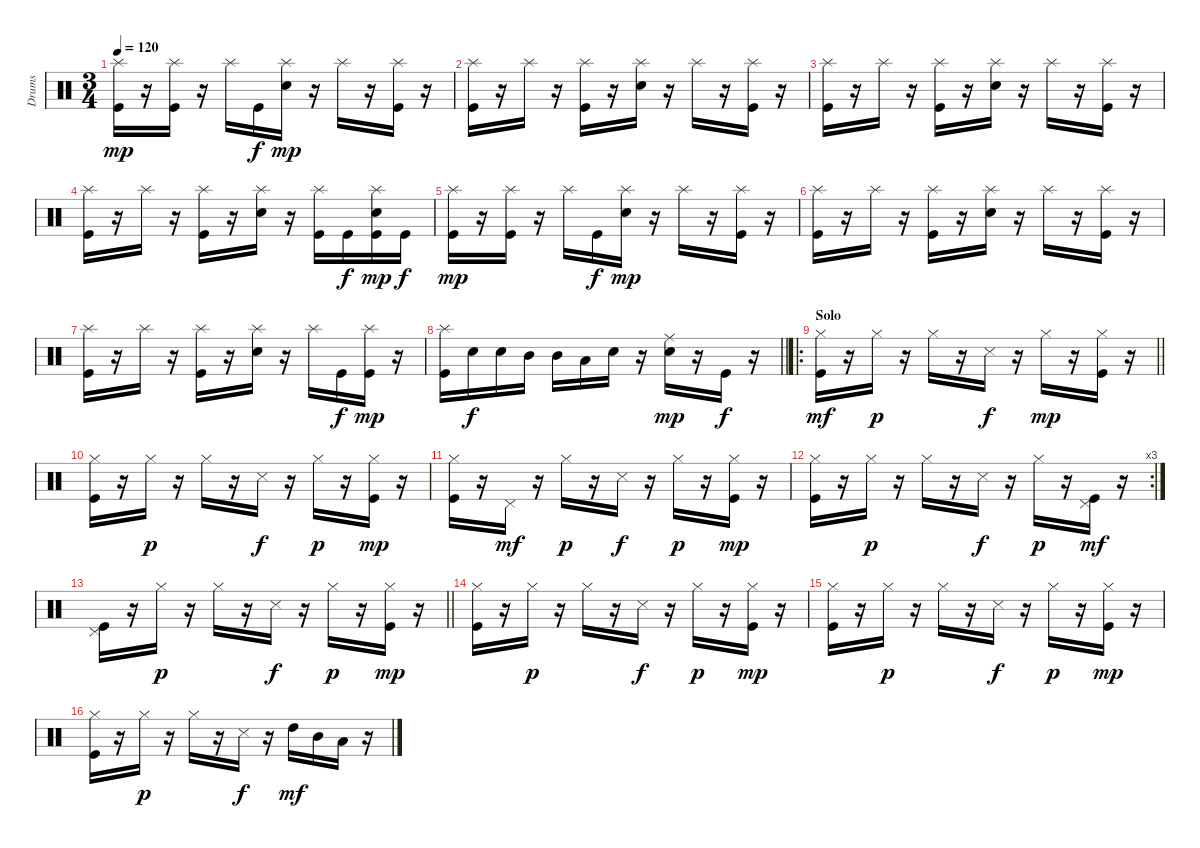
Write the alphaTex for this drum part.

\track ("Drums" "Drums") {instrument percussion}
\staff {score}
\articulation defaults
\ts (3 4)
\tempo 120
\clef neutral
\ks c
("Kick (hit)" "Splash (hit)").16{dy mp} r.16 ("Kick (hit)" "Splash (hit)").16 r.16 "Splash (hit)".16 "Kick (hit)".16{dy f} ("Splash (hit)" "Snare (hit) 2").16{dy mp} r.16 "Splash (hit)".16 r.16 ("Kick (hit)" "Splash (hit)").16 r.16 |
("Kick (hit)" "Splash (hit)").16 r.16 "Splash (hit)".16 r.16 ("Kick (hit)" "Splash (hit)").16 r.16 ("Splash (hit)" "Snare (hit) 2").16 r.16 "Splash (hit)".16 r.16 ("Kick (hit)" "Splash (hit)").16 r.16 |
("Kick (hit)" "Splash (hit)").16 r.16 "Splash (hit)".16 r.16 ("Kick (hit)" "Splash (hit)").16 r.16 ("Splash (hit)" "Snare (hit) 2").16 r.16 "Splash (hit)".16 r.16 ("Kick (hit)" "Splash (hit)").16 r.16 |
("Kick (hit)" "Splash (hit)").16 r.16 "Splash (hit)".16 r.16 ("Kick (hit)" "Splash (hit)").16 r.16 ("Splash (hit)" "Snare (hit) 2").16 r.16 ("Kick (hit)" "Splash (hit)").16 "Kick (hit)".16{dy f} ("Kick (hit)" "Splash (hit)" "Snare (hit) 2").16{dy mp} "Kick (hit)".16{dy f} |
("Kick (hit)" "Splash (hit)").16{dy mp} r.16 ("Kick (hit)" "Splash (hit)").16 r.16 "Splash (hit)".16 "Kick (hit)".16{dy f} ("Splash (hit)" "Snare (hit) 2").16{dy mp} r.16 "Splash (hit)".16 r.16 ("Kick (hit)" "Splash (hit)").16 r.16 |
("Kick (hit)" "Splash (hit)").16 r.16 "Splash (hit)".16 r.16 ("Kick (hit)" "Splash (hit)").16 r.16 ("Splash (hit)" "Snare (hit) 2").16 r.16 "Splash (hit)".16 r.16 ("Kick (hit)" "Splash (hit)").16 r.16 |
("Kick (hit)" "Splash (hit)").16 r.16 "Splash (hit)".16 r.16 ("Kick (hit)" "Splash (hit)").16 r.16 ("Splash (hit)" "Snare (hit) 2").16 r.16 "Splash (hit)".16 "Kick (hit)".16{dy f} ("Kick (hit)" "Splash (hit)").16{dy mp} r.16 |
\barLineRight lightlight
("Kick (hit)" "Splash (hit)").16 "Snare (hit) 2".16{dy f} "Snare (hit) 2".16 "Mid Tom (hit)".16 "Mid Tom (hit)".16 "Low Tom (hit)".16 "Snare (hit) 2".16 r.16 ("Ride (middle)" "Snare (hit) 2").16{dy mp} r.16 "Kick (hit)".16{dy f} r.16 |
\ro
\section ("" "Solo")
\barLineRight lightlight
("Kick (hit)" "Hi-Hat (closed)").16{dy mf} r.16 "Hi-Hat (closed)".16{dy p} r.16 "Hi-Hat (closed)".16 r.16 "Snare (side stick) 3".16{dy f} r.16 "Hi-Hat (closed)".16{dy mp} r.16 ("Kick (hit)" "Hi-Hat (closed)").16 r.16 |
("Kick (hit)" "Hi-Hat (closed)").16 r.16 "Hi-Hat (closed)".16{dy p} r.16 "Hi-Hat (closed)".16 r.16 "Snare (side stick) 3".16{dy f} r.16 "Hi-Hat (closed)".16{dy p} r.16 ("Kick (hit)" "Hi-Hat (closed)").16{dy mp} r.16 |
("Kick (hit)" "Hi-Hat (closed)").16 r.16 "Pedal Hi-Hat (hit)".16{dy mf} r.16 "Hi-Hat (closed)".16{dy p} r.16 "Snare (side stick) 3".16{dy f} r.16 "Hi-Hat (closed)".16{dy p} r.16 ("Kick (hit)" "Hi-Hat (closed)").16{dy mp} r.16 |
\rc 3
("Kick (hit)" "Hi-Hat (closed)").16 r.16 "Hi-Hat (closed)".16{dy p} r.16 "Hi-Hat (closed)".16 r.16 "Snare (side stick) 3".16{dy f} r.16 "Hi-Hat (closed)".16{dy p} r.16 ("Kick (hit)" "Pedal Hi-Hat (hit)").16{dy mf} r.16 |
\barLineRight lightlight
("Kick (hit)" "Pedal Hi-Hat (hit)").16 r.16 "Hi-Hat (closed)".16{dy p} r.16 "Hi-Hat (closed)".16 r.16 "Snare (side stick) 3".16{dy f} r.16 "Hi-Hat (closed)".16{dy p} r.16 ("Kick (hit)" "Hi-Hat (closed)").16{dy mp} r.16 |
("Kick (hit)" "Hi-Hat (closed)").16 r.16 "Hi-Hat (closed)".16{dy p} r.16 "Hi-Hat (closed)".16 r.16 "Snare (side stick) 3".16{dy f} r.16 "Hi-Hat (closed)".16{dy p} r.16 ("Kick (hit)" "Hi-Hat (closed)").16{dy mp} r.16 |
("Kick (hit)" "Hi-Hat (closed)").16 r.16 "Hi-Hat (closed)".16{dy p} r.16 "Hi-Hat (closed)".16 r.16 "Snare (side stick) 3".16{dy f} r.16 "Hi-Hat (closed)".16{dy p} r.16 ("Kick (hit)" "Hi-Hat (closed)").16{dy mp} r.16 |
("Kick (hit)" "Hi-Hat (closed)").16 r.16 "Hi-Hat (closed)".16{dy p} r.16 "Hi-Hat (closed)".16 r.16 "Snare (side stick) 3".16{dy f} r.16 "High Tom (hit)".16{dy mf} "Mid Tom (hit)".16 "Low Tom (hit)".16 r.16
